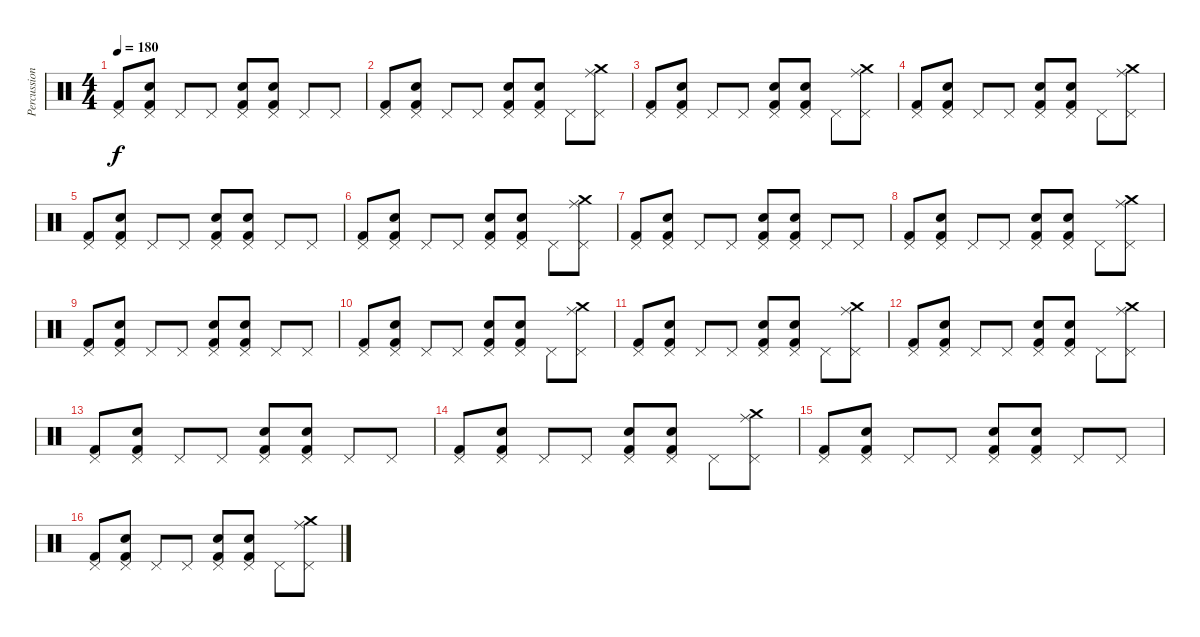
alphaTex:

\track ("Percussion" "Percussion") {instrument percussion}
\staff {score}
\articulation defaults
\ts (4 4)
\tempo 180
\clef neutral
\ks c
("Pedal Hi-Hat (hit)" "Kick (hit) 2").8{dy f} ("Pedal Hi-Hat (hit)" "Snare (hit) 2" "Kick (hit) 2").8 "Pedal Hi-Hat (hit)".8 "Pedal Hi-Hat (hit)".8 ("Pedal Hi-Hat (hit)" "Snare (hit) 2" "Kick (hit) 2").8 ("Pedal Hi-Hat (hit)" "Snare (hit) 2" "Kick (hit) 2").8 "Pedal Hi-Hat (hit)".8 "Pedal Hi-Hat (hit)".8 |
("Pedal Hi-Hat (hit)" "Kick (hit) 2").8 ("Pedal Hi-Hat (hit)" "Snare (hit) 2" "Kick (hit) 2").8 "Pedal Hi-Hat (hit)".8 "Pedal Hi-Hat (hit)".8 ("Pedal Hi-Hat (hit)" "Snare (hit) 2" "Kick (hit) 2").8 ("Pedal Hi-Hat (hit)" "Snare (hit) 2" "Kick (hit) 2").8 "Pedal Hi-Hat (hit)".8 ("Pedal Hi-Hat (hit)" "Ride (middle)" "Crash medium (hit)").8 |
("Pedal Hi-Hat (hit)" "Kick (hit) 2").8 ("Pedal Hi-Hat (hit)" "Snare (hit) 2" "Kick (hit) 2").8 "Pedal Hi-Hat (hit)".8 "Pedal Hi-Hat (hit)".8 ("Pedal Hi-Hat (hit)" "Snare (hit) 2" "Kick (hit) 2").8 ("Pedal Hi-Hat (hit)" "Snare (hit) 2" "Kick (hit) 2").8 "Pedal Hi-Hat (hit)".8 ("Pedal Hi-Hat (hit)" "Ride (middle)" "Crash medium (hit)").8 |
("Pedal Hi-Hat (hit)" "Kick (hit) 2").8 ("Pedal Hi-Hat (hit)" "Snare (hit) 2" "Kick (hit) 2").8 "Pedal Hi-Hat (hit)".8 "Pedal Hi-Hat (hit)".8 ("Pedal Hi-Hat (hit)" "Snare (hit) 2" "Kick (hit) 2").8 ("Pedal Hi-Hat (hit)" "Snare (hit) 2" "Kick (hit) 2").8 "Pedal Hi-Hat (hit)".8 ("Pedal Hi-Hat (hit)" "Ride (middle)" "Crash medium (hit)").8 |
("Pedal Hi-Hat (hit)" "Kick (hit) 2").8 ("Pedal Hi-Hat (hit)" "Snare (hit) 2" "Kick (hit) 2").8 "Pedal Hi-Hat (hit)".8 "Pedal Hi-Hat (hit)".8 ("Pedal Hi-Hat (hit)" "Snare (hit) 2" "Kick (hit) 2").8 ("Pedal Hi-Hat (hit)" "Snare (hit) 2" "Kick (hit) 2").8 "Pedal Hi-Hat (hit)".8 "Pedal Hi-Hat (hit)".8 |
("Pedal Hi-Hat (hit)" "Kick (hit) 2").8 ("Pedal Hi-Hat (hit)" "Snare (hit) 2" "Kick (hit) 2").8 "Pedal Hi-Hat (hit)".8 "Pedal Hi-Hat (hit)".8 ("Pedal Hi-Hat (hit)" "Snare (hit) 2" "Kick (hit) 2").8 ("Pedal Hi-Hat (hit)" "Snare (hit) 2" "Kick (hit) 2").8 "Pedal Hi-Hat (hit)".8 ("Pedal Hi-Hat (hit)" "Ride (middle)" "Crash medium (hit)").8 |
("Pedal Hi-Hat (hit)" "Kick (hit) 2").8 ("Pedal Hi-Hat (hit)" "Snare (hit) 2" "Kick (hit) 2").8 "Pedal Hi-Hat (hit)".8 "Pedal Hi-Hat (hit)".8 ("Pedal Hi-Hat (hit)" "Snare (hit) 2" "Kick (hit) 2").8 ("Pedal Hi-Hat (hit)" "Snare (hit) 2" "Kick (hit) 2").8 "Pedal Hi-Hat (hit)".8 "Pedal Hi-Hat (hit)".8 |
("Pedal Hi-Hat (hit)" "Kick (hit) 2").8 ("Pedal Hi-Hat (hit)" "Snare (hit) 2" "Kick (hit) 2").8 "Pedal Hi-Hat (hit)".8 "Pedal Hi-Hat (hit)".8 ("Pedal Hi-Hat (hit)" "Snare (hit) 2" "Kick (hit) 2").8 ("Pedal Hi-Hat (hit)" "Snare (hit) 2" "Kick (hit) 2").8 "Pedal Hi-Hat (hit)".8 ("Pedal Hi-Hat (hit)" "Ride (middle)" "Crash medium (hit)").8 |
("Pedal Hi-Hat (hit)" "Kick (hit) 2").8 ("Pedal Hi-Hat (hit)" "Snare (hit) 2" "Kick (hit) 2").8 "Pedal Hi-Hat (hit)".8 "Pedal Hi-Hat (hit)".8 ("Pedal Hi-Hat (hit)" "Snare (hit) 2" "Kick (hit) 2").8 ("Pedal Hi-Hat (hit)" "Snare (hit) 2" "Kick (hit) 2").8 "Pedal Hi-Hat (hit)".8 "Pedal Hi-Hat (hit)".8 |
("Pedal Hi-Hat (hit)" "Kick (hit) 2").8 ("Pedal Hi-Hat (hit)" "Snare (hit) 2" "Kick (hit) 2").8 "Pedal Hi-Hat (hit)".8 "Pedal Hi-Hat (hit)".8 ("Pedal Hi-Hat (hit)" "Snare (hit) 2" "Kick (hit) 2").8 ("Pedal Hi-Hat (hit)" "Snare (hit) 2" "Kick (hit) 2").8 "Pedal Hi-Hat (hit)".8 ("Pedal Hi-Hat (hit)" "Ride (middle)" "Crash medium (hit)").8 |
("Pedal Hi-Hat (hit)" "Kick (hit) 2").8 ("Pedal Hi-Hat (hit)" "Snare (hit) 2" "Kick (hit) 2").8 "Pedal Hi-Hat (hit)".8 "Pedal Hi-Hat (hit)".8 ("Pedal Hi-Hat (hit)" "Snare (hit) 2" "Kick (hit) 2").8 ("Pedal Hi-Hat (hit)" "Snare (hit) 2" "Kick (hit) 2").8 "Pedal Hi-Hat (hit)".8 ("Pedal Hi-Hat (hit)" "Ride (middle)" "Crash medium (hit)").8 |
("Pedal Hi-Hat (hit)" "Kick (hit) 2").8 ("Pedal Hi-Hat (hit)" "Snare (hit) 2" "Kick (hit) 2").8 "Pedal Hi-Hat (hit)".8 "Pedal Hi-Hat (hit)".8 ("Pedal Hi-Hat (hit)" "Snare (hit) 2" "Kick (hit) 2").8 ("Pedal Hi-Hat (hit)" "Snare (hit) 2" "Kick (hit) 2").8 "Pedal Hi-Hat (hit)".8 ("Pedal Hi-Hat (hit)" "Ride (middle)" "Crash medium (hit)").8 |
("Pedal Hi-Hat (hit)" "Kick (hit) 2").8 ("Pedal Hi-Hat (hit)" "Snare (hit) 2" "Kick (hit) 2").8 "Pedal Hi-Hat (hit)".8 "Pedal Hi-Hat (hit)".8 ("Pedal Hi-Hat (hit)" "Snare (hit) 2" "Kick (hit) 2").8 ("Pedal Hi-Hat (hit)" "Snare (hit) 2" "Kick (hit) 2").8 "Pedal Hi-Hat (hit)".8 "Pedal Hi-Hat (hit)".8 |
("Pedal Hi-Hat (hit)" "Kick (hit) 2").8 ("Pedal Hi-Hat (hit)" "Snare (hit) 2" "Kick (hit) 2").8 "Pedal Hi-Hat (hit)".8 "Pedal Hi-Hat (hit)".8 ("Pedal Hi-Hat (hit)" "Snare (hit) 2" "Kick (hit) 2").8 ("Pedal Hi-Hat (hit)" "Snare (hit) 2" "Kick (hit) 2").8 "Pedal Hi-Hat (hit)".8 ("Pedal Hi-Hat (hit)" "Ride (middle)" "Crash medium (hit)").8 |
("Pedal Hi-Hat (hit)" "Kick (hit) 2").8 ("Pedal Hi-Hat (hit)" "Snare (hit) 2" "Kick (hit) 2").8 "Pedal Hi-Hat (hit)".8 "Pedal Hi-Hat (hit)".8 ("Pedal Hi-Hat (hit)" "Snare (hit) 2" "Kick (hit) 2").8 ("Pedal Hi-Hat (hit)" "Snare (hit) 2" "Kick (hit) 2").8 "Pedal Hi-Hat (hit)".8 "Pedal Hi-Hat (hit)".8 |
("Pedal Hi-Hat (hit)" "Kick (hit) 2").8 ("Pedal Hi-Hat (hit)" "Snare (hit) 2" "Kick (hit) 2").8 "Pedal Hi-Hat (hit)".8 "Pedal Hi-Hat (hit)".8 ("Pedal Hi-Hat (hit)" "Snare (hit) 2" "Kick (hit) 2").8 ("Pedal Hi-Hat (hit)" "Snare (hit) 2" "Kick (hit) 2").8 "Pedal Hi-Hat (hit)".8 ("Pedal Hi-Hat (hit)" "Ride (middle)" "Crash medium (hit)").8
